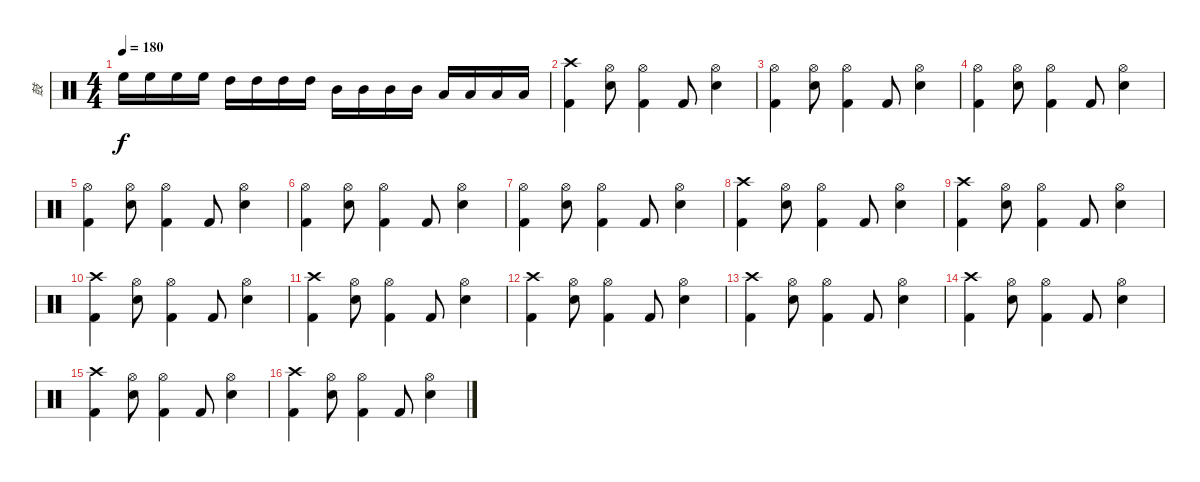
\track ("鼓" "鼓") {instrument percussion}
\staff {score}
\articulation defaults
\ts (4 4)
\tempo 180
\clef neutral
\ks c "High Floor Tom (hit)".16{dy f} "High Floor Tom (hit)".16 "High Floor Tom (hit)".16 "High Floor Tom (hit)".16 "High Tom (hit)".16 "High Tom (hit)".16 "High Tom (hit)".16 "High Tom (hit)".16 "Mid Tom (hit)".16 "Mid Tom (hit)".16 "Mid Tom (hit)".16 "Mid Tom (hit)".16 "Low Tom (hit)".16 "Low Tom (hit)".16 "Low Tom (hit)".16 "Low Tom (hit)".16
|
("Crash high (hit)" "Kick (hit) 2").4 ("Hi-Hat (open)" "Snare (hit) 2").8 ("Hi-Hat (open)" "Kick (hit) 2").4 "Kick (hit) 2".8 ("Hi-Hat (open)" "Snare (hit) 2").4 |
("Hi-Hat (open)" "Kick (hit) 2").4 ("Hi-Hat (open)" "Snare (hit) 2").8 ("Hi-Hat (open)" "Kick (hit) 2").4 "Kick (hit) 2".8 ("Hi-Hat (open)" "Snare (hit) 2").4 |
("Hi-Hat (open)" "Kick (hit) 2").4 ("Hi-Hat (open)" "Snare (hit) 2").8 ("Hi-Hat (open)" "Kick (hit) 2").4 "Kick (hit) 2".8 ("Hi-Hat (open)" "Snare (hit) 2").4 |
("Hi-Hat (open)" "Kick (hit) 2").4 ("Hi-Hat (open)" "Snare (hit) 2").8 ("Hi-Hat (open)" "Kick (hit) 2").4 "Kick (hit) 2".8 ("Hi-Hat (open)" "Snare (hit) 2").4 |
("Hi-Hat (open)" "Kick (hit) 2").4 ("Hi-Hat (open)" "Snare (hit) 2").8 ("Hi-Hat (open)" "Kick (hit) 2").4 "Kick (hit) 2".8 ("Hi-Hat (open)" "Snare (hit) 2").4 |
("Hi-Hat (open)" "Kick (hit) 2").4 ("Hi-Hat (open)" "Snare (hit) 2").8 ("Hi-Hat (open)" "Kick (hit) 2").4 "Kick (hit) 2".8 ("Hi-Hat (open)" "Snare (hit) 2").4 |
("Crash high (hit)" "Kick (hit) 2").4 ("Hi-Hat (open)" "Snare (hit) 2").8 ("Hi-Hat (open)" "Kick (hit) 2").4 "Kick (hit) 2".8 ("Hi-Hat (open)" "Snare (hit) 2").4 |
("Crash high (hit)" "Kick (hit) 2").4 ("Hi-Hat (open)" "Snare (hit) 2").8 ("Hi-Hat (open)" "Kick (hit) 2").4 "Kick (hit) 2".8 ("Hi-Hat (open)" "Snare (hit) 2").4 |
("Crash high (hit)" "Kick (hit) 2").4 ("Hi-Hat (open)" "Snare (hit) 2").8 ("Hi-Hat (open)" "Kick (hit) 2").4 "Kick (hit) 2".8 ("Hi-Hat (open)" "Snare (hit) 2").4 |
("Crash high (hit)" "Kick (hit) 2").4 ("Hi-Hat (open)" "Snare (hit) 2").8 ("Hi-Hat (open)" "Kick (hit) 2").4 "Kick (hit) 2".8 ("Hi-Hat (open)" "Snare (hit) 2").4 |
("Crash high (hit)" "Kick (hit) 2").4 ("Hi-Hat (open)" "Snare (hit) 2").8 ("Hi-Hat (open)" "Kick (hit) 2").4 "Kick (hit) 2".8 ("Hi-Hat (open)" "Snare (hit) 2").4 |
("Crash high (hit)" "Kick (hit) 2").4 ("Hi-Hat (open)" "Snare (hit) 2").8 ("Hi-Hat (open)" "Kick (hit) 2").4 "Kick (hit) 2".8 ("Hi-Hat (open)" "Snare (hit) 2").4 |
("Crash high (hit)" "Kick (hit) 2").4 ("Hi-Hat (open)" "Snare (hit) 2").8 ("Hi-Hat (open)" "Kick (hit) 2").4 "Kick (hit) 2".8 ("Hi-Hat (open)" "Snare (hit) 2").4 |
("Crash high (hit)" "Kick (hit) 2").4 ("Hi-Hat (open)" "Snare (hit) 2").8 ("Hi-Hat (open)" "Kick (hit) 2").4 "Kick (hit) 2".8 ("Hi-Hat (open)" "Snare (hit) 2").4 |
("Crash high (hit)" "Kick (hit) 2").4 ("Hi-Hat (open)" "Snare (hit) 2").8 ("Hi-Hat (open)" "Kick (hit) 2").4 "Kick (hit) 2".8 ("Hi-Hat (open)" "Snare (hit) 2").4
